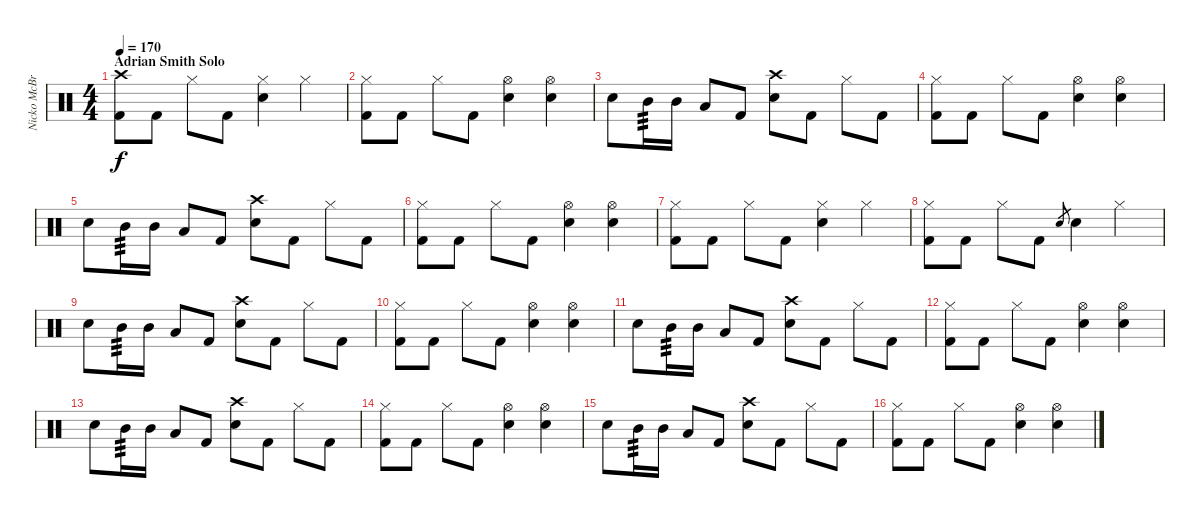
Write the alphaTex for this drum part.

\track ("Nicko McBrain" "Nicko McBr") {instrument percussion}
\staff {score}
\articulation defaults
\ts (4 4)
\section ("" "Adrian Smith Solo")
\tempo 170
\clef neutral
\ks c
("Crash high (hit)" "Kick (hit) 2").8{dy f} "Kick (hit) 2".8 "Hi-Hat (closed)".8 "Kick (hit) 2".8 ("Hi-Hat (closed)" "Electric Snare (hit)").4 "Hi-Hat (closed)".4 |
("Hi-Hat (closed)" "Kick (hit) 2").8 "Kick (hit) 2".8 "Hi-Hat (closed)".8 "Kick (hit) 2".8 ("Hi-Hat (open)" "Electric Snare (hit)").4 ("Hi-Hat (open)" "Electric Snare (hit)").4 |
"Electric Snare (hit)".8 "Mid Tom (hit)".16{tp 3} "Mid Tom (hit)".16 "Low Tom (hit)".8 "Kick (hit) 2".8 ("Crash high (hit)" "Electric Snare (hit)").8 "Kick (hit) 2".8 "Hi-Hat (closed)".8 "Kick (hit) 2".8 |
("Hi-Hat (closed)" "Kick (hit) 2").8 "Kick (hit) 2".8 "Hi-Hat (closed)".8 "Kick (hit) 2".8 ("Hi-Hat (open)" "Electric Snare (hit)").4 ("Hi-Hat (open)" "Electric Snare (hit)").4 |
"Electric Snare (hit)".8 "Mid Tom (hit)".16{tp 3} "Mid Tom (hit)".16 "Low Tom (hit)".8 "Kick (hit) 2".8 ("Crash high (hit)" "Electric Snare (hit)").8 "Kick (hit) 2".8 "Hi-Hat (closed)".8 "Kick (hit) 2".8 |
("Hi-Hat (closed)" "Kick (hit) 2").8 "Kick (hit) 2".8 "Hi-Hat (closed)".8 "Kick (hit) 2".8 ("Hi-Hat (open)" "Electric Snare (hit)").4 ("Hi-Hat (open)" "Electric Snare (hit)").4 |
("Hi-Hat (closed)" "Kick (hit) 2").8 "Kick (hit) 2".8 "Hi-Hat (closed)".8 "Kick (hit) 2".8 ("Hi-Hat (closed)" "Electric Snare (hit)").4 "Hi-Hat (closed)".4 |
("Hi-Hat (closed)" "Kick (hit) 2").8 "Kick (hit) 2".8 "Hi-Hat (closed)".8 "Kick (hit) 2".8 "Electric Snare (hit)".8{gr} "Electric Snare (hit)".4 "Hi-Hat (closed)".4 |
"Electric Snare (hit)".8 "Mid Tom (hit)".16{tp 3} "Mid Tom (hit)".16 "Low Tom (hit)".8 "Kick (hit) 2".8 ("Crash high (hit)" "Electric Snare (hit)").8 "Kick (hit) 2".8 "Hi-Hat (closed)".8 "Kick (hit) 2".8 |
("Hi-Hat (closed)" "Kick (hit) 2").8 "Kick (hit) 2".8 "Hi-Hat (closed)".8 "Kick (hit) 2".8 ("Hi-Hat (open)" "Electric Snare (hit)").4 ("Hi-Hat (open)" "Electric Snare (hit)").4 |
"Electric Snare (hit)".8 "Mid Tom (hit)".16{tp 3} "Mid Tom (hit)".16 "Low Tom (hit)".8 "Kick (hit) 2".8 ("Crash high (hit)" "Electric Snare (hit)").8 "Kick (hit) 2".8 "Hi-Hat (closed)".8 "Kick (hit) 2".8 |
("Hi-Hat (closed)" "Kick (hit) 2").8 "Kick (hit) 2".8 "Hi-Hat (closed)".8 "Kick (hit) 2".8 ("Hi-Hat (open)" "Electric Snare (hit)").4 ("Hi-Hat (open)" "Electric Snare (hit)").4 |
"Electric Snare (hit)".8 "Mid Tom (hit)".16{tp 3} "Mid Tom (hit)".16 "Low Tom (hit)".8 "Kick (hit) 2".8 ("Crash high (hit)" "Electric Snare (hit)").8 "Kick (hit) 2".8 "Hi-Hat (closed)".8 "Kick (hit) 2".8 |
("Hi-Hat (closed)" "Kick (hit) 2").8 "Kick (hit) 2".8 "Hi-Hat (closed)".8 "Kick (hit) 2".8 ("Hi-Hat (open)" "Electric Snare (hit)").4 ("Hi-Hat (open)" "Electric Snare (hit)").4 |
"Electric Snare (hit)".8 "Mid Tom (hit)".16{tp 3} "Mid Tom (hit)".16 "Low Tom (hit)".8 "Kick (hit) 2".8 ("Crash high (hit)" "Electric Snare (hit)").8 "Kick (hit) 2".8 "Hi-Hat (closed)".8 "Kick (hit) 2".8 |
("Hi-Hat (closed)" "Kick (hit) 2").8 "Kick (hit) 2".8 "Hi-Hat (closed)".8 "Kick (hit) 2".8 ("Hi-Hat (open)" "Electric Snare (hit)").4 ("Hi-Hat (open)" "Electric Snare (hit)").4
